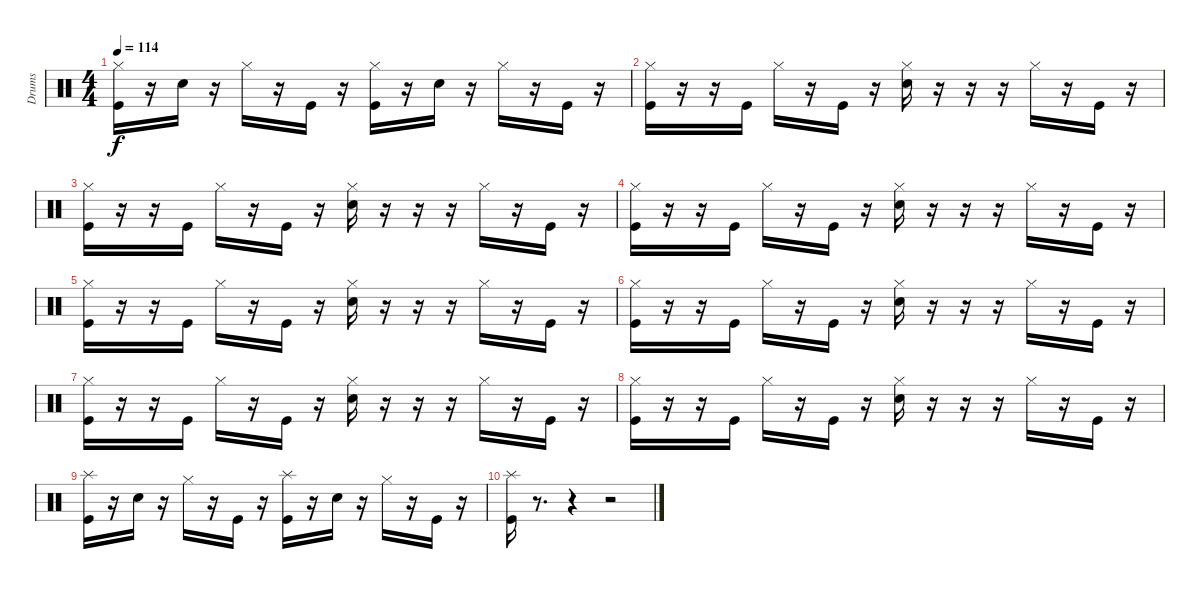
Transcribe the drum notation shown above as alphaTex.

\track ("Drums" "Drums") {instrument percussion}
\staff {score}
\articulation defaults
\ts (4 4)
\tempo 114
\clef neutral
\ks c
("Hi-Hat (closed)" "Kick (hit)").16{dy f} r.16 "Snare (hit) 2".16 r.16 "Hi-Hat (closed)".16 r.16 "Kick (hit)".16 r.16 ("Hi-Hat (closed)" "Kick (hit)").16 r.16 "Snare (hit) 2".16 r.16 "Hi-Hat (closed)".16 r.16 "Kick (hit)".16 r.16 |
("Hi-Hat (closed)" "Kick (hit)").16 r.16 r.16 "Kick (hit)".16 "Hi-Hat (closed)".16 r.16 "Kick (hit)".16 r.16 ("Hi-Hat (closed)" "Snare (hit) 2").16 r.16 r.16 r.16 "Hi-Hat (closed)".16 r.16 "Kick (hit)".16 r.16 |
("Hi-Hat (closed)" "Kick (hit)").16 r.16 r.16 "Kick (hit)".16 "Hi-Hat (closed)".16 r.16 "Kick (hit)".16 r.16 ("Hi-Hat (closed)" "Snare (hit) 2").16 r.16 r.16 r.16 "Hi-Hat (closed)".16 r.16 "Kick (hit)".16 r.16 |
("Hi-Hat (closed)" "Kick (hit)").16 r.16 r.16 "Kick (hit)".16 "Hi-Hat (closed)".16 r.16 "Kick (hit)".16 r.16 ("Hi-Hat (closed)" "Snare (hit) 2").16 r.16 r.16 r.16 "Hi-Hat (closed)".16 r.16 "Kick (hit)".16 r.16 |
("Hi-Hat (closed)" "Kick (hit)").16 r.16 r.16 "Kick (hit)".16 "Hi-Hat (closed)".16 r.16 "Kick (hit)".16 r.16 ("Hi-Hat (closed)" "Snare (hit) 2").16 r.16 r.16 r.16 "Hi-Hat (closed)".16 r.16 "Kick (hit)".16 r.16 |
("Hi-Hat (closed)" "Kick (hit)").16 r.16 r.16 "Kick (hit)".16 "Hi-Hat (closed)".16 r.16 "Kick (hit)".16 r.16 ("Hi-Hat (closed)" "Snare (hit) 2").16 r.16 r.16 r.16 "Hi-Hat (closed)".16 r.16 "Kick (hit)".16 r.16 |
("Hi-Hat (closed)" "Kick (hit)").16 r.16 r.16 "Kick (hit)".16 "Hi-Hat (closed)".16 r.16 "Kick (hit)".16 r.16 ("Hi-Hat (closed)" "Snare (hit) 2").16 r.16 r.16 r.16 "Hi-Hat (closed)".16 r.16 "Kick (hit)".16 r.16 |
("Hi-Hat (closed)" "Kick (hit)").16 r.16 r.16 "Kick (hit)".16 "Hi-Hat (closed)".16 r.16 "Kick (hit)".16 r.16 ("Hi-Hat (closed)" "Snare (hit) 2").16 r.16 r.16 r.16 "Hi-Hat (closed)".16 r.16 "Kick (hit)".16 r.16 |
("Splash (hit)" "Kick (hit)").16 r.16 "Snare (hit) 2".16 r.16 "Hi-Hat (closed)".16 r.16 "Kick (hit)".16 r.16 ("Splash (hit)" "Kick (hit)").16 r.16 "Snare (hit) 2".16 r.16 "Hi-Hat (closed)".16 r.16 "Kick (hit)".16 r.16 |
("Splash (hit)" "Kick (hit)").16 r.8{d} r.4 r.2
